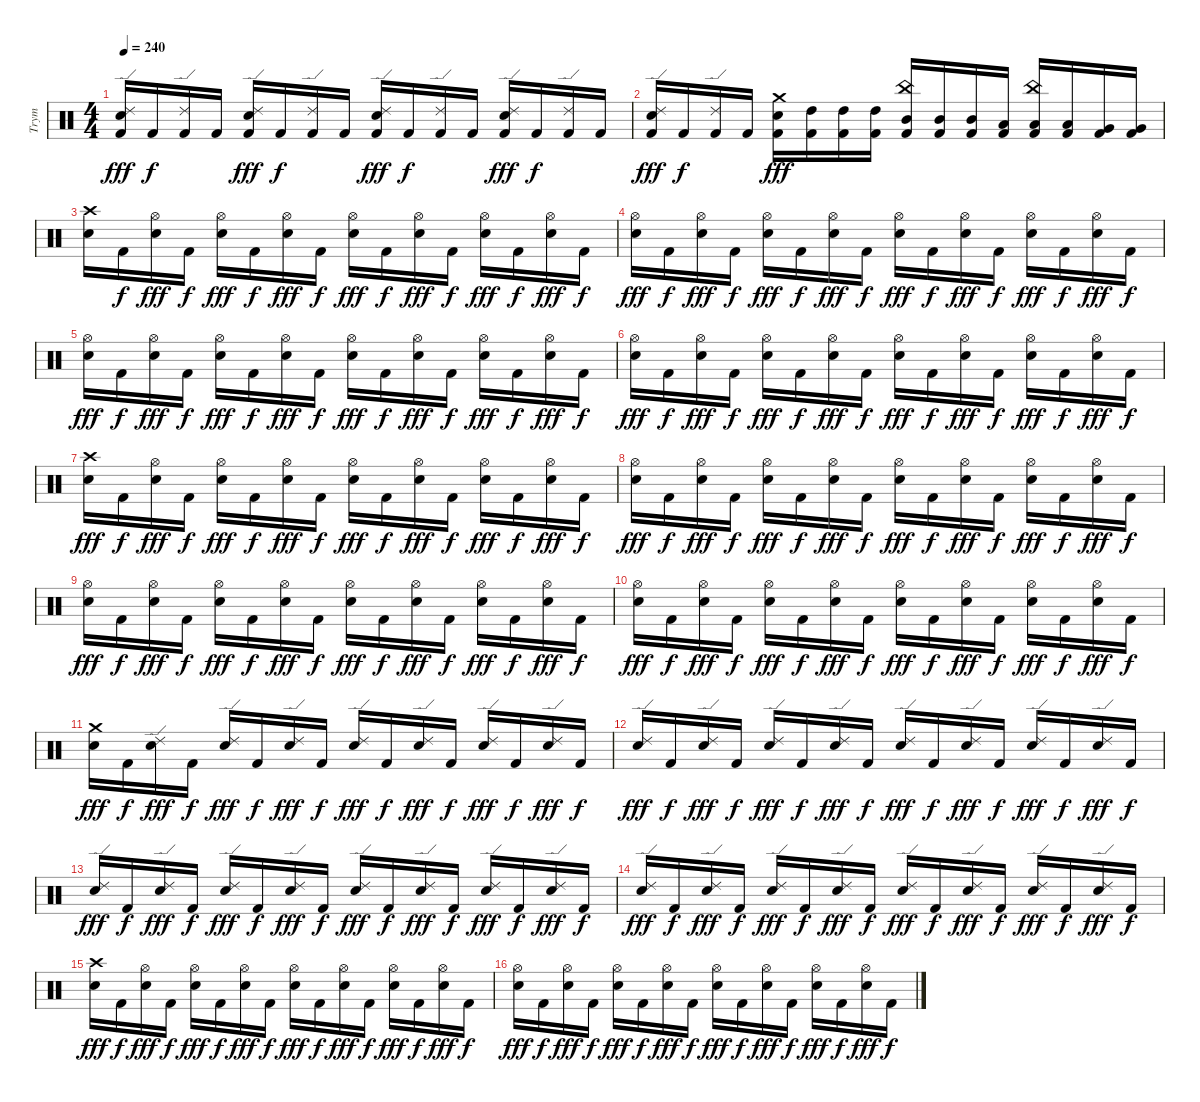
\track ("Trym" "Trym") {instrument percussion}
\staff {score}
\articulation defaults
\ts (4 4)
\tempo 240
\clef neutral
\ks c
("Ride (edge) 2" "Electric Snare (hit)" "Kick (hit) 2").16{dy fff} "Kick (hit) 2".16{dy f} ("Ride (edge) 2" "Kick (hit) 2").16 "Kick (hit) 2".16 ("Ride (edge) 2" "Electric Snare (hit)" "Kick (hit) 2").16{dy fff} "Kick (hit) 2".16{dy f} ("Ride (edge) 2" "Kick (hit) 2").16 "Kick (hit) 2".16 ("Ride (edge) 2" "Electric Snare (hit)" "Kick (hit) 2").16{dy fff} "Kick (hit) 2".16{dy f} ("Ride (edge) 2" "Kick (hit) 2").16 "Kick (hit) 2".16 ("Ride (edge) 2" "Electric Snare (hit)" "Kick (hit) 2").16{dy fff} "Kick (hit) 2".16{dy f} ("Ride (edge) 2" "Kick (hit) 2").16 "Kick (hit) 2".16 |
("Ride (edge) 2" "Electric Snare (hit)" "Kick (hit) 2").16{dy fff} "Kick (hit) 2".16{dy f} ("Ride (edge) 2" "Kick (hit) 2").16 "Kick (hit) 2".16 ("Crash medium (hit)" "Electric Snare (hit)" "Kick (hit) 2").16{dy fff} ("High Tom (hit)" "Kick (hit) 2").16 ("High Tom (hit)" "Kick (hit) 2").16 ("High Tom (hit)" "Kick (hit) 2").16 ("China (hit)" "Mid Tom (hit)" "Kick (hit) 2").16 ("Mid Tom (hit)" "Kick (hit) 2").16 ("Mid Tom (hit)" "Kick (hit) 2").16 ("Low Tom (hit)" "Kick (hit) 2").16 ("China (hit)" "Low Tom (hit)" "Kick (hit) 2").16 ("Low Tom (hit)" "Kick (hit) 2").16 ("Very Low Tom (hit)" "Kick (hit) 2").16 ("Very Low Tom (hit)" "Kick (hit) 2").16 |
("Crash high (hit)" "Electric Snare (hit)").16 "Kick (hit) 2".16{dy f} ("Hi-Hat (open)" "Electric Snare (hit)").16{dy fff} "Kick (hit) 2".16{dy f} ("Hi-Hat (open)" "Electric Snare (hit)").16{dy fff} "Kick (hit) 2".16{dy f} ("Hi-Hat (open)" "Electric Snare (hit)").16{dy fff} "Kick (hit) 2".16{dy f} ("Hi-Hat (open)" "Electric Snare (hit)").16{dy fff} "Kick (hit) 2".16{dy f} ("Hi-Hat (open)" "Electric Snare (hit)").16{dy fff} "Kick (hit) 2".16{dy f} ("Hi-Hat (open)" "Electric Snare (hit)").16{dy fff} "Kick (hit) 2".16{dy f} ("Hi-Hat (open)" "Electric Snare (hit)").16{dy fff} "Kick (hit) 2".16{dy f} |
("Hi-Hat (open)" "Electric Snare (hit)").16{dy fff} "Kick (hit) 2".16{dy f} ("Hi-Hat (open)" "Electric Snare (hit)").16{dy fff} "Kick (hit) 2".16{dy f} ("Hi-Hat (open)" "Electric Snare (hit)").16{dy fff} "Kick (hit) 2".16{dy f} ("Hi-Hat (open)" "Electric Snare (hit)").16{dy fff} "Kick (hit) 2".16{dy f} ("Hi-Hat (open)" "Electric Snare (hit)").16{dy fff} "Kick (hit) 2".16{dy f} ("Hi-Hat (open)" "Electric Snare (hit)").16{dy fff} "Kick (hit) 2".16{dy f} ("Hi-Hat (open)" "Electric Snare (hit)").16{dy fff} "Kick (hit) 2".16{dy f} ("Hi-Hat (open)" "Electric Snare (hit)").16{dy fff} "Kick (hit) 2".16{dy f} |
("Hi-Hat (open)" "Electric Snare (hit)").16{dy fff} "Kick (hit) 2".16{dy f} ("Hi-Hat (open)" "Electric Snare (hit)").16{dy fff} "Kick (hit) 2".16{dy f} ("Hi-Hat (open)" "Electric Snare (hit)").16{dy fff} "Kick (hit) 2".16{dy f} ("Hi-Hat (open)" "Electric Snare (hit)").16{dy fff} "Kick (hit) 2".16{dy f} ("Hi-Hat (open)" "Electric Snare (hit)").16{dy fff} "Kick (hit) 2".16{dy f} ("Hi-Hat (open)" "Electric Snare (hit)").16{dy fff} "Kick (hit) 2".16{dy f} ("Hi-Hat (open)" "Electric Snare (hit)").16{dy fff} "Kick (hit) 2".16{dy f} ("Hi-Hat (open)" "Electric Snare (hit)").16{dy fff} "Kick (hit) 2".16{dy f} |
("Hi-Hat (open)" "Electric Snare (hit)").16{dy fff} "Kick (hit) 2".16{dy f} ("Hi-Hat (open)" "Electric Snare (hit)").16{dy fff} "Kick (hit) 2".16{dy f} ("Hi-Hat (open)" "Electric Snare (hit)").16{dy fff} "Kick (hit) 2".16{dy f} ("Hi-Hat (open)" "Electric Snare (hit)").16{dy fff} "Kick (hit) 2".16{dy f} ("Hi-Hat (open)" "Electric Snare (hit)").16{dy fff} "Kick (hit) 2".16{dy f} ("Hi-Hat (open)" "Electric Snare (hit)").16{dy fff} "Kick (hit) 2".16{dy f} ("Hi-Hat (open)" "Electric Snare (hit)").16{dy fff} "Kick (hit) 2".16{dy f} ("Hi-Hat (open)" "Electric Snare (hit)").16{dy fff} "Kick (hit) 2".16{dy f} |
("Crash high (hit)" "Electric Snare (hit)").16{dy fff} "Kick (hit) 2".16{dy f} ("Hi-Hat (open)" "Electric Snare (hit)").16{dy fff} "Kick (hit) 2".16{dy f} ("Hi-Hat (open)" "Electric Snare (hit)").16{dy fff} "Kick (hit) 2".16{dy f} ("Hi-Hat (open)" "Electric Snare (hit)").16{dy fff} "Kick (hit) 2".16{dy f} ("Hi-Hat (open)" "Electric Snare (hit)").16{dy fff} "Kick (hit) 2".16{dy f} ("Hi-Hat (open)" "Electric Snare (hit)").16{dy fff} "Kick (hit) 2".16{dy f} ("Hi-Hat (open)" "Electric Snare (hit)").16{dy fff} "Kick (hit) 2".16{dy f} ("Hi-Hat (open)" "Electric Snare (hit)").16{dy fff} "Kick (hit) 2".16{dy f} |
("Hi-Hat (open)" "Electric Snare (hit)").16{dy fff} "Kick (hit) 2".16{dy f} ("Hi-Hat (open)" "Electric Snare (hit)").16{dy fff} "Kick (hit) 2".16{dy f} ("Hi-Hat (open)" "Electric Snare (hit)").16{dy fff} "Kick (hit) 2".16{dy f} ("Hi-Hat (open)" "Electric Snare (hit)").16{dy fff} "Kick (hit) 2".16{dy f} ("Hi-Hat (open)" "Electric Snare (hit)").16{dy fff} "Kick (hit) 2".16{dy f} ("Hi-Hat (open)" "Electric Snare (hit)").16{dy fff} "Kick (hit) 2".16{dy f} ("Hi-Hat (open)" "Electric Snare (hit)").16{dy fff} "Kick (hit) 2".16{dy f} ("Hi-Hat (open)" "Electric Snare (hit)").16{dy fff} "Kick (hit) 2".16{dy f} |
("Hi-Hat (open)" "Electric Snare (hit)").16{dy fff} "Kick (hit) 2".16{dy f} ("Hi-Hat (open)" "Electric Snare (hit)").16{dy fff} "Kick (hit) 2".16{dy f} ("Hi-Hat (open)" "Electric Snare (hit)").16{dy fff} "Kick (hit) 2".16{dy f} ("Hi-Hat (open)" "Electric Snare (hit)").16{dy fff} "Kick (hit) 2".16{dy f} ("Hi-Hat (open)" "Electric Snare (hit)").16{dy fff} "Kick (hit) 2".16{dy f} ("Hi-Hat (open)" "Electric Snare (hit)").16{dy fff} "Kick (hit) 2".16{dy f} ("Hi-Hat (open)" "Electric Snare (hit)").16{dy fff} "Kick (hit) 2".16{dy f} ("Hi-Hat (open)" "Electric Snare (hit)").16{dy fff} "Kick (hit) 2".16{dy f} |
("Hi-Hat (open)" "Electric Snare (hit)").16{dy fff} "Kick (hit) 2".16{dy f} ("Hi-Hat (open)" "Electric Snare (hit)").16{dy fff} "Kick (hit) 2".16{dy f} ("Hi-Hat (open)" "Electric Snare (hit)").16{dy fff} "Kick (hit) 2".16{dy f} ("Hi-Hat (open)" "Electric Snare (hit)").16{dy fff} "Kick (hit) 2".16{dy f} ("Hi-Hat (open)" "Electric Snare (hit)").16{dy fff} "Kick (hit) 2".16{dy f} ("Hi-Hat (open)" "Electric Snare (hit)").16{dy fff} "Kick (hit) 2".16{dy f} ("Hi-Hat (open)" "Electric Snare (hit)").16{dy fff} "Kick (hit) 2".16{dy f} ("Hi-Hat (open)" "Electric Snare (hit)").16{dy fff} "Kick (hit) 2".16{dy f} |
("Crash medium (hit)" "Electric Snare (hit)").16{dy fff} "Kick (hit) 2".16{dy f} ("Ride (edge) 2" "Electric Snare (hit)").16{dy fff} "Kick (hit) 2".16{dy f} ("Ride (edge) 2" "Electric Snare (hit)").16{dy fff} "Kick (hit) 2".16{dy f} ("Ride (edge) 2" "Electric Snare (hit)").16{dy fff} "Kick (hit) 2".16{dy f} ("Ride (edge) 2" "Electric Snare (hit)").16{dy fff} "Kick (hit) 2".16{dy f} ("Ride (edge) 2" "Electric Snare (hit)").16{dy fff} "Kick (hit) 2".16{dy f} ("Ride (edge) 2" "Electric Snare (hit)").16{dy fff} "Kick (hit) 2".16{dy f} ("Ride (edge) 2" "Electric Snare (hit)").16{dy fff} "Kick (hit) 2".16{dy f} |
("Ride (edge) 2" "Electric Snare (hit)").16{dy fff} "Kick (hit) 2".16{dy f} ("Ride (edge) 2" "Electric Snare (hit)").16{dy fff} "Kick (hit) 2".16{dy f} ("Ride (edge) 2" "Electric Snare (hit)").16{dy fff} "Kick (hit) 2".16{dy f} ("Ride (edge) 2" "Electric Snare (hit)").16{dy fff} "Kick (hit) 2".16{dy f} ("Ride (edge) 2" "Electric Snare (hit)").16{dy fff} "Kick (hit) 2".16{dy f} ("Ride (edge) 2" "Electric Snare (hit)").16{dy fff} "Kick (hit) 2".16{dy f} ("Ride (edge) 2" "Electric Snare (hit)").16{dy fff} "Kick (hit) 2".16{dy f} ("Ride (edge) 2" "Electric Snare (hit)").16{dy fff} "Kick (hit) 2".16{dy f} |
("Ride (edge) 2" "Electric Snare (hit)").16{dy fff} "Kick (hit) 2".16{dy f} ("Ride (edge) 2" "Electric Snare (hit)").16{dy fff} "Kick (hit) 2".16{dy f} ("Ride (edge) 2" "Electric Snare (hit)").16{dy fff} "Kick (hit) 2".16{dy f} ("Ride (edge) 2" "Electric Snare (hit)").16{dy fff} "Kick (hit) 2".16{dy f} ("Ride (edge) 2" "Electric Snare (hit)").16{dy fff} "Kick (hit) 2".16{dy f} ("Ride (edge) 2" "Electric Snare (hit)").16{dy fff} "Kick (hit) 2".16{dy f} ("Ride (edge) 2" "Electric Snare (hit)").16{dy fff} "Kick (hit) 2".16{dy f} ("Ride (edge) 2" "Electric Snare (hit)").16{dy fff} "Kick (hit) 2".16{dy f} |
("Ride (edge) 2" "Electric Snare (hit)").16{dy fff} "Kick (hit) 2".16{dy f} ("Ride (edge) 2" "Electric Snare (hit)").16{dy fff} "Kick (hit) 2".16{dy f} ("Ride (edge) 2" "Electric Snare (hit)").16{dy fff} "Kick (hit) 2".16{dy f} ("Ride (edge) 2" "Electric Snare (hit)").16{dy fff} "Kick (hit) 2".16{dy f} ("Ride (edge) 2" "Electric Snare (hit)").16{dy fff} "Kick (hit) 2".16{dy f} ("Ride (edge) 2" "Electric Snare (hit)").16{dy fff} "Kick (hit) 2".16{dy f} ("Ride (edge) 2" "Electric Snare (hit)").16{dy fff} "Kick (hit) 2".16{dy f} ("Ride (edge) 2" "Electric Snare (hit)").16{dy fff} "Kick (hit) 2".16{dy f} |
("Crash high (hit)" "Electric Snare (hit)").16{dy fff} "Kick (hit) 2".16{dy f} ("Hi-Hat (open)" "Electric Snare (hit)").16{dy fff} "Kick (hit) 2".16{dy f} ("Hi-Hat (open)" "Electric Snare (hit)").16{dy fff} "Kick (hit) 2".16{dy f} ("Hi-Hat (open)" "Electric Snare (hit)").16{dy fff} "Kick (hit) 2".16{dy f} ("Hi-Hat (open)" "Electric Snare (hit)").16{dy fff} "Kick (hit) 2".16{dy f} ("Hi-Hat (open)" "Electric Snare (hit)").16{dy fff} "Kick (hit) 2".16{dy f} ("Hi-Hat (open)" "Electric Snare (hit)").16{dy fff} "Kick (hit) 2".16{dy f} ("Hi-Hat (open)" "Electric Snare (hit)").16{dy fff} "Kick (hit) 2".16{dy f} |
("Hi-Hat (open)" "Electric Snare (hit)").16{dy fff} "Kick (hit) 2".16{dy f} ("Hi-Hat (open)" "Electric Snare (hit)").16{dy fff} "Kick (hit) 2".16{dy f} ("Hi-Hat (open)" "Electric Snare (hit)").16{dy fff} "Kick (hit) 2".16{dy f} ("Hi-Hat (open)" "Electric Snare (hit)").16{dy fff} "Kick (hit) 2".16{dy f} ("Hi-Hat (open)" "Electric Snare (hit)").16{dy fff} "Kick (hit) 2".16{dy f} ("Hi-Hat (open)" "Electric Snare (hit)").16{dy fff} "Kick (hit) 2".16{dy f} ("Hi-Hat (open)" "Electric Snare (hit)").16{dy fff} "Kick (hit) 2".16{dy f} ("Hi-Hat (open)" "Electric Snare (hit)").16{dy fff} "Kick (hit) 2".16{dy f}
